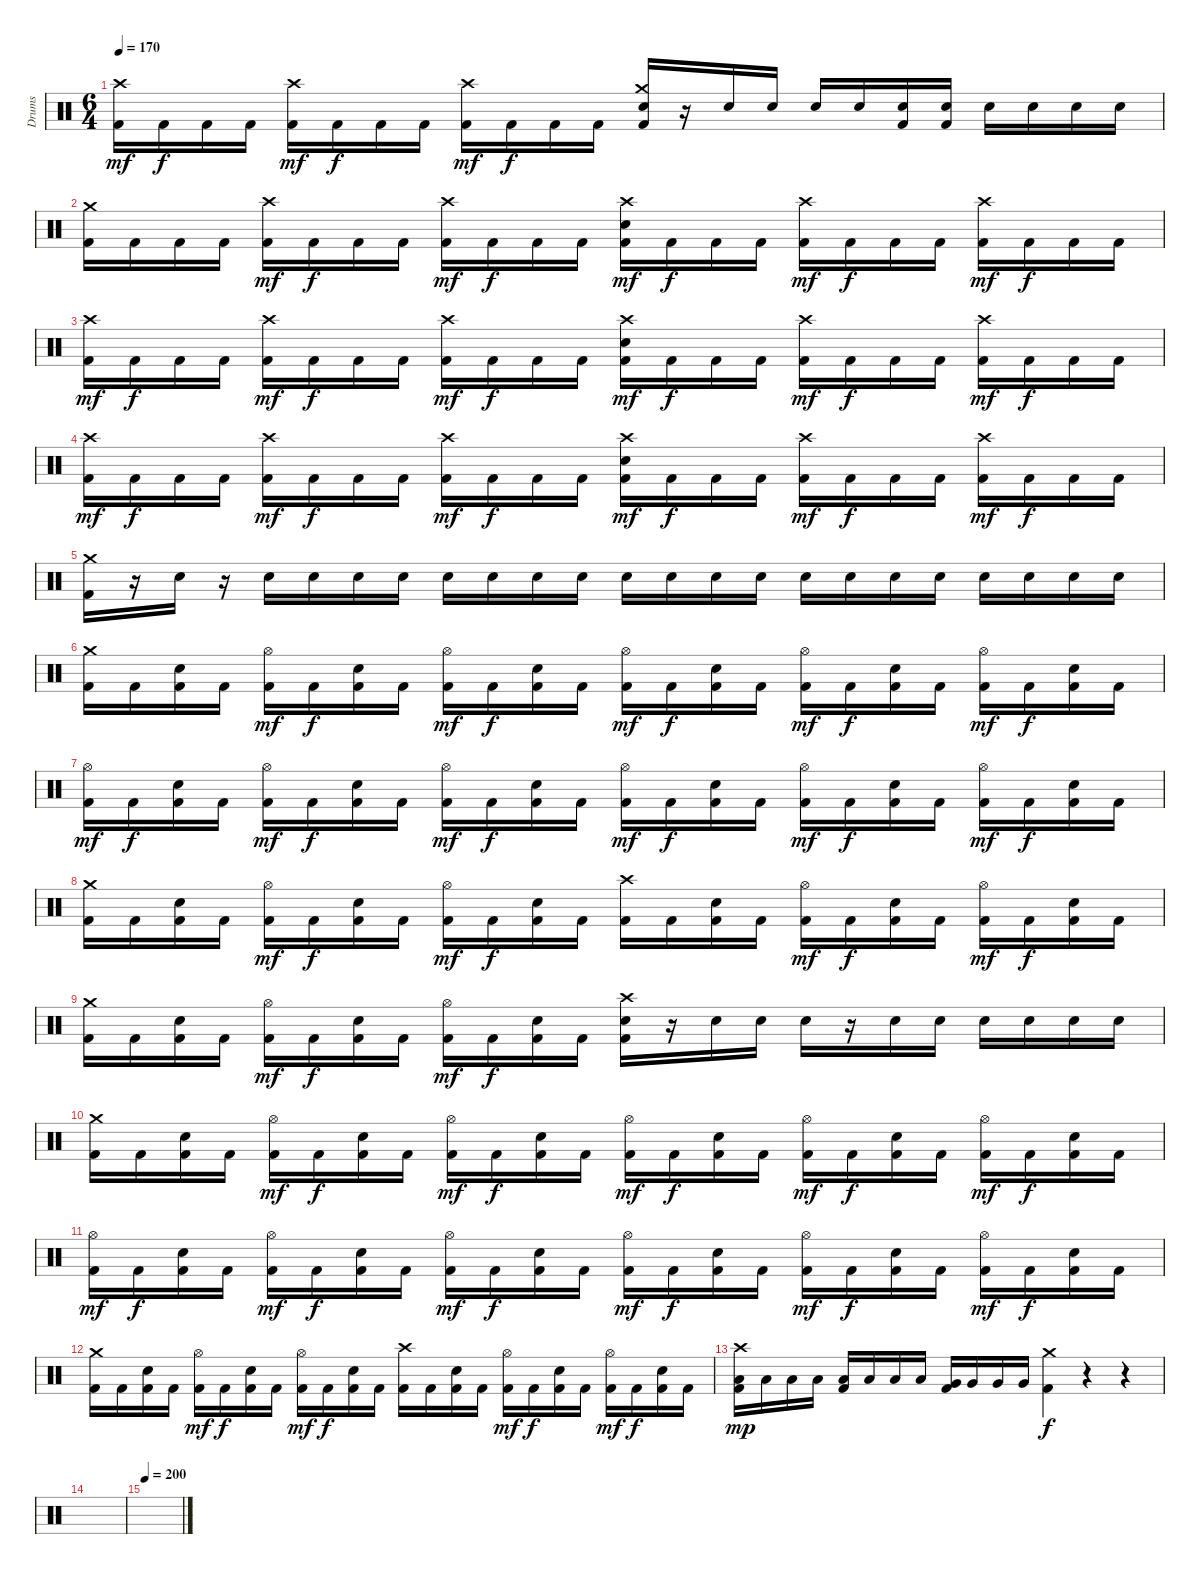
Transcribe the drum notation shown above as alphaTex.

\track ("Drums" "Drums") {instrument percussion}
\staff {score}
\articulation defaults
\ts (6 4)
\tempo 170
\clef neutral
\ks c
("Crash high (hit)" "Kick (hit) 2").16{dy mf} "Kick (hit) 2".16{dy f} "Kick (hit) 2".16 "Kick (hit) 2".16 ("Crash high (hit)" "Kick (hit) 2").16{dy mf} "Kick (hit) 2".16{dy f} "Kick (hit) 2".16 "Kick (hit) 2".16 ("Crash high (hit)" "Kick (hit) 2").16{dy mf} "Kick (hit) 2".16{dy f} "Kick (hit) 2".16 "Kick (hit) 2".16 ("Crash medium (hit)" "Electric Snare (hit)" "Kick (hit) 2").16 r.16 "Electric Snare (hit)".16 "Electric Snare (hit)".16 "Electric Snare (hit)".16 "Electric Snare (hit)".16 ("Electric Snare (hit)" "Kick (hit) 2").16 ("Electric Snare (hit)" "Kick (hit) 2").16 "Electric Snare (hit)".16 "Electric Snare (hit)".16 "Electric Snare (hit)".16 "Electric Snare (hit)".16 |
("Crash medium (hit)" "Kick (hit) 2").16 "Kick (hit) 2".16 "Kick (hit) 2".16 "Kick (hit) 2".16 ("Crash high (hit)" "Kick (hit) 2").16{dy mf} "Kick (hit) 2".16{dy f} "Kick (hit) 2".16 "Kick (hit) 2".16 ("Crash high (hit)" "Kick (hit) 2").16{dy mf} "Kick (hit) 2".16{dy f} "Kick (hit) 2".16 "Kick (hit) 2".16 ("Crash high (hit)" "Electric Snare (hit)" "Kick (hit) 2").16{dy mf} "Kick (hit) 2".16{dy f} "Kick (hit) 2".16 "Kick (hit) 2".16 ("Crash high (hit)" "Kick (hit) 2").16{dy mf} "Kick (hit) 2".16{dy f} "Kick (hit) 2".16 "Kick (hit) 2".16 ("Crash high (hit)" "Kick (hit) 2").16{dy mf} "Kick (hit) 2".16{dy f} "Kick (hit) 2".16 "Kick (hit) 2".16 |
("Crash high (hit)" "Kick (hit) 2").16{dy mf} "Kick (hit) 2".16{dy f} "Kick (hit) 2".16 "Kick (hit) 2".16 ("Crash high (hit)" "Kick (hit) 2").16{dy mf} "Kick (hit) 2".16{dy f} "Kick (hit) 2".16 "Kick (hit) 2".16 ("Crash high (hit)" "Kick (hit) 2").16{dy mf} "Kick (hit) 2".16{dy f} "Kick (hit) 2".16 "Kick (hit) 2".16 ("Crash high (hit)" "Electric Snare (hit)" "Kick (hit) 2").16{dy mf} "Kick (hit) 2".16{dy f} "Kick (hit) 2".16 "Kick (hit) 2".16 ("Crash high (hit)" "Kick (hit) 2").16{dy mf} "Kick (hit) 2".16{dy f} "Kick (hit) 2".16 "Kick (hit) 2".16 ("Crash high (hit)" "Kick (hit) 2").16{dy mf} "Kick (hit) 2".16{dy f} "Kick (hit) 2".16 "Kick (hit) 2".16 |
("Crash high (hit)" "Kick (hit) 2").16{dy mf} "Kick (hit) 2".16{dy f} "Kick (hit) 2".16 "Kick (hit) 2".16 ("Crash high (hit)" "Kick (hit) 2").16{dy mf} "Kick (hit) 2".16{dy f} "Kick (hit) 2".16 "Kick (hit) 2".16 ("Crash high (hit)" "Kick (hit) 2").16{dy mf} "Kick (hit) 2".16{dy f} "Kick (hit) 2".16 "Kick (hit) 2".16 ("Crash high (hit)" "Electric Snare (hit)" "Kick (hit) 2").16{dy mf} "Kick (hit) 2".16{dy f} "Kick (hit) 2".16 "Kick (hit) 2".16 ("Crash high (hit)" "Kick (hit) 2").16{dy mf} "Kick (hit) 2".16{dy f} "Kick (hit) 2".16 "Kick (hit) 2".16 ("Crash high (hit)" "Kick (hit) 2").16{dy mf} "Kick (hit) 2".16{dy f} "Kick (hit) 2".16 "Kick (hit) 2".16 |
("Crash medium (hit)" "Kick (hit) 2").16 r.16 "Electric Snare (hit)".16 r.16 "Electric Snare (hit)".16 "Electric Snare (hit)".16 "Electric Snare (hit)".16 "Electric Snare (hit)".16 "Electric Snare (hit)".16 "Electric Snare (hit)".16 "Electric Snare (hit)".16 "Electric Snare (hit)".16 "Electric Snare (hit)".16 "Electric Snare (hit)".16 "Electric Snare (hit)".16 "Electric Snare (hit)".16 "Electric Snare (hit)".16 "Electric Snare (hit)".16 "Electric Snare (hit)".16 "Electric Snare (hit)".16 "Electric Snare (hit)".16 "Electric Snare (hit)".16 "Electric Snare (hit)".16 "Electric Snare (hit)".16 |
("Crash medium (hit)" "Kick (hit) 2").16 "Kick (hit) 2".16 ("Electric Snare (hit)" "Kick (hit) 2").16 "Kick (hit) 2".16 ("Hi-Hat (open)" "Kick (hit) 2").16{dy mf} "Kick (hit) 2".16{dy f} ("Electric Snare (hit)" "Kick (hit) 2").16 "Kick (hit) 2".16 ("Hi-Hat (open)" "Kick (hit) 2").16{dy mf} "Kick (hit) 2".16{dy f} ("Electric Snare (hit)" "Kick (hit) 2").16 "Kick (hit) 2".16 ("Hi-Hat (open)" "Kick (hit) 2").16{dy mf} "Kick (hit) 2".16{dy f} ("Electric Snare (hit)" "Kick (hit) 2").16 "Kick (hit) 2".16 ("Hi-Hat (open)" "Kick (hit) 2").16{dy mf} "Kick (hit) 2".16{dy f} ("Electric Snare (hit)" "Kick (hit) 2").16 "Kick (hit) 2".16 ("Hi-Hat (open)" "Kick (hit) 2").16{dy mf} "Kick (hit) 2".16{dy f} ("Electric Snare (hit)" "Kick (hit) 2").16 "Kick (hit) 2".16 |
("Hi-Hat (open)" "Kick (hit) 2").16{dy mf} "Kick (hit) 2".16{dy f} ("Electric Snare (hit)" "Kick (hit) 2").16 "Kick (hit) 2".16 ("Hi-Hat (open)" "Kick (hit) 2").16{dy mf} "Kick (hit) 2".16{dy f} ("Electric Snare (hit)" "Kick (hit) 2").16 "Kick (hit) 2".16 ("Hi-Hat (open)" "Kick (hit) 2").16{dy mf} "Kick (hit) 2".16{dy f} ("Electric Snare (hit)" "Kick (hit) 2").16 "Kick (hit) 2".16 ("Hi-Hat (open)" "Kick (hit) 2").16{dy mf} "Kick (hit) 2".16{dy f} ("Electric Snare (hit)" "Kick (hit) 2").16 "Kick (hit) 2".16 ("Hi-Hat (open)" "Kick (hit) 2").16{dy mf} "Kick (hit) 2".16{dy f} ("Electric Snare (hit)" "Kick (hit) 2").16 "Kick (hit) 2".16 ("Hi-Hat (open)" "Kick (hit) 2").16{dy mf} "Kick (hit) 2".16{dy f} ("Electric Snare (hit)" "Kick (hit) 2").16 "Kick (hit) 2".16 |
("Crash medium (hit)" "Kick (hit) 2").16 "Kick (hit) 2".16 ("Electric Snare (hit)" "Kick (hit) 2").16 "Kick (hit) 2".16 ("Hi-Hat (open)" "Kick (hit) 2").16{dy mf} "Kick (hit) 2".16{dy f} ("Electric Snare (hit)" "Kick (hit) 2").16 "Kick (hit) 2".16 ("Hi-Hat (open)" "Kick (hit) 2").16{dy mf} "Kick (hit) 2".16{dy f} ("Electric Snare (hit)" "Kick (hit) 2").16 "Kick (hit) 2".16 ("Crash high (hit)" "Kick (hit) 2").16 "Kick (hit) 2".16 ("Electric Snare (hit)" "Kick (hit) 2").16 "Kick (hit) 2".16 ("Hi-Hat (open)" "Kick (hit) 2").16{dy mf} "Kick (hit) 2".16{dy f} ("Electric Snare (hit)" "Kick (hit) 2").16 "Kick (hit) 2".16 ("Hi-Hat (open)" "Kick (hit) 2").16{dy mf} "Kick (hit) 2".16{dy f} ("Electric Snare (hit)" "Kick (hit) 2").16 "Kick (hit) 2".16 |
("Crash medium (hit)" "Kick (hit) 2").16 "Kick (hit) 2".16 ("Electric Snare (hit)" "Kick (hit) 2").16 "Kick (hit) 2".16 ("Hi-Hat (open)" "Kick (hit) 2").16{dy mf} "Kick (hit) 2".16{dy f} ("Electric Snare (hit)" "Kick (hit) 2").16 "Kick (hit) 2".16 ("Hi-Hat (open)" "Kick (hit) 2").16{dy mf} "Kick (hit) 2".16{dy f} ("Electric Snare (hit)" "Kick (hit) 2").16 "Kick (hit) 2".16 ("Crash high (hit)" "Electric Snare (hit)" "Kick (hit) 2").16 r.16 "Electric Snare (hit)".16 "Electric Snare (hit)".16 "Electric Snare (hit)".16 r.16 "Electric Snare (hit)".16 "Electric Snare (hit)".16 "Electric Snare (hit)".16 "Electric Snare (hit)".16 "Electric Snare (hit)".16 "Electric Snare (hit)".16 |
("Crash medium (hit)" "Kick (hit) 2").16 "Kick (hit) 2".16 ("Electric Snare (hit)" "Kick (hit) 2").16 "Kick (hit) 2".16 ("Hi-Hat (open)" "Kick (hit) 2").16{dy mf} "Kick (hit) 2".16{dy f} ("Electric Snare (hit)" "Kick (hit) 2").16 "Kick (hit) 2".16 ("Hi-Hat (open)" "Kick (hit) 2").16{dy mf} "Kick (hit) 2".16{dy f} ("Electric Snare (hit)" "Kick (hit) 2").16 "Kick (hit) 2".16 ("Hi-Hat (open)" "Kick (hit) 2").16{dy mf} "Kick (hit) 2".16{dy f} ("Electric Snare (hit)" "Kick (hit) 2").16 "Kick (hit) 2".16 ("Hi-Hat (open)" "Kick (hit) 2").16{dy mf} "Kick (hit) 2".16{dy f} ("Electric Snare (hit)" "Kick (hit) 2").16 "Kick (hit) 2".16 ("Hi-Hat (open)" "Kick (hit) 2").16{dy mf} "Kick (hit) 2".16{dy f} ("Electric Snare (hit)" "Kick (hit) 2").16 "Kick (hit) 2".16 |
("Hi-Hat (open)" "Kick (hit) 2").16{dy mf} "Kick (hit) 2".16{dy f} ("Electric Snare (hit)" "Kick (hit) 2").16 "Kick (hit) 2".16 ("Hi-Hat (open)" "Kick (hit) 2").16{dy mf} "Kick (hit) 2".16{dy f} ("Electric Snare (hit)" "Kick (hit) 2").16 "Kick (hit) 2".16 ("Hi-Hat (open)" "Kick (hit) 2").16{dy mf} "Kick (hit) 2".16{dy f} ("Electric Snare (hit)" "Kick (hit) 2").16 "Kick (hit) 2".16 ("Hi-Hat (open)" "Kick (hit) 2").16{dy mf} "Kick (hit) 2".16{dy f} ("Electric Snare (hit)" "Kick (hit) 2").16 "Kick (hit) 2".16 ("Hi-Hat (open)" "Kick (hit) 2").16{dy mf} "Kick (hit) 2".16{dy f} ("Electric Snare (hit)" "Kick (hit) 2").16 "Kick (hit) 2".16 ("Hi-Hat (open)" "Kick (hit) 2").16{dy mf} "Kick (hit) 2".16{dy f} ("Electric Snare (hit)" "Kick (hit) 2").16 "Kick (hit) 2".16 |
("Crash medium (hit)" "Kick (hit) 2").16 "Kick (hit) 2".16 ("Electric Snare (hit)" "Kick (hit) 2").16 "Kick (hit) 2".16 ("Hi-Hat (open)" "Kick (hit) 2").16{dy mf} "Kick (hit) 2".16{dy f} ("Electric Snare (hit)" "Kick (hit) 2").16 "Kick (hit) 2".16 ("Hi-Hat (open)" "Kick (hit) 2").16{dy mf} "Kick (hit) 2".16{dy f} ("Electric Snare (hit)" "Kick (hit) 2").16 "Kick (hit) 2".16 ("Crash high (hit)" "Kick (hit) 2").16 "Kick (hit) 2".16 ("Electric Snare (hit)" "Kick (hit) 2").16 "Kick (hit) 2".16 ("Hi-Hat (open)" "Kick (hit) 2").16{dy mf} "Kick (hit) 2".16{dy f} ("Electric Snare (hit)" "Kick (hit) 2").16 "Kick (hit) 2".16 ("Hi-Hat (open)" "Kick (hit) 2").16{dy mf} "Kick (hit) 2".16{dy f} ("Electric Snare (hit)" "Kick (hit) 2").16 "Kick (hit) 2".16 |
("Crash high (hit)" "Low Tom (hit)" "Kick (hit) 2").16{dy mp} "Low Tom (hit)".16 "Low Tom (hit)".16 "Low Tom (hit)".16 ("Low Floor Tom (hit)" "Kick (hit) 2").16 "Low Floor Tom (hit)".16 "Low Floor Tom (hit)".16 "Low Floor Tom (hit)".16 ("Very Low Tom (hit)" "Kick (hit) 2").16 "Very Low Tom (hit)".16 "Very Low Tom (hit)".16 "Very Low Tom (hit)".16 ("Crash medium (hit)" "Kick (hit) 2").4{dy f} r.4 r.4 |
|
\tempo 200
